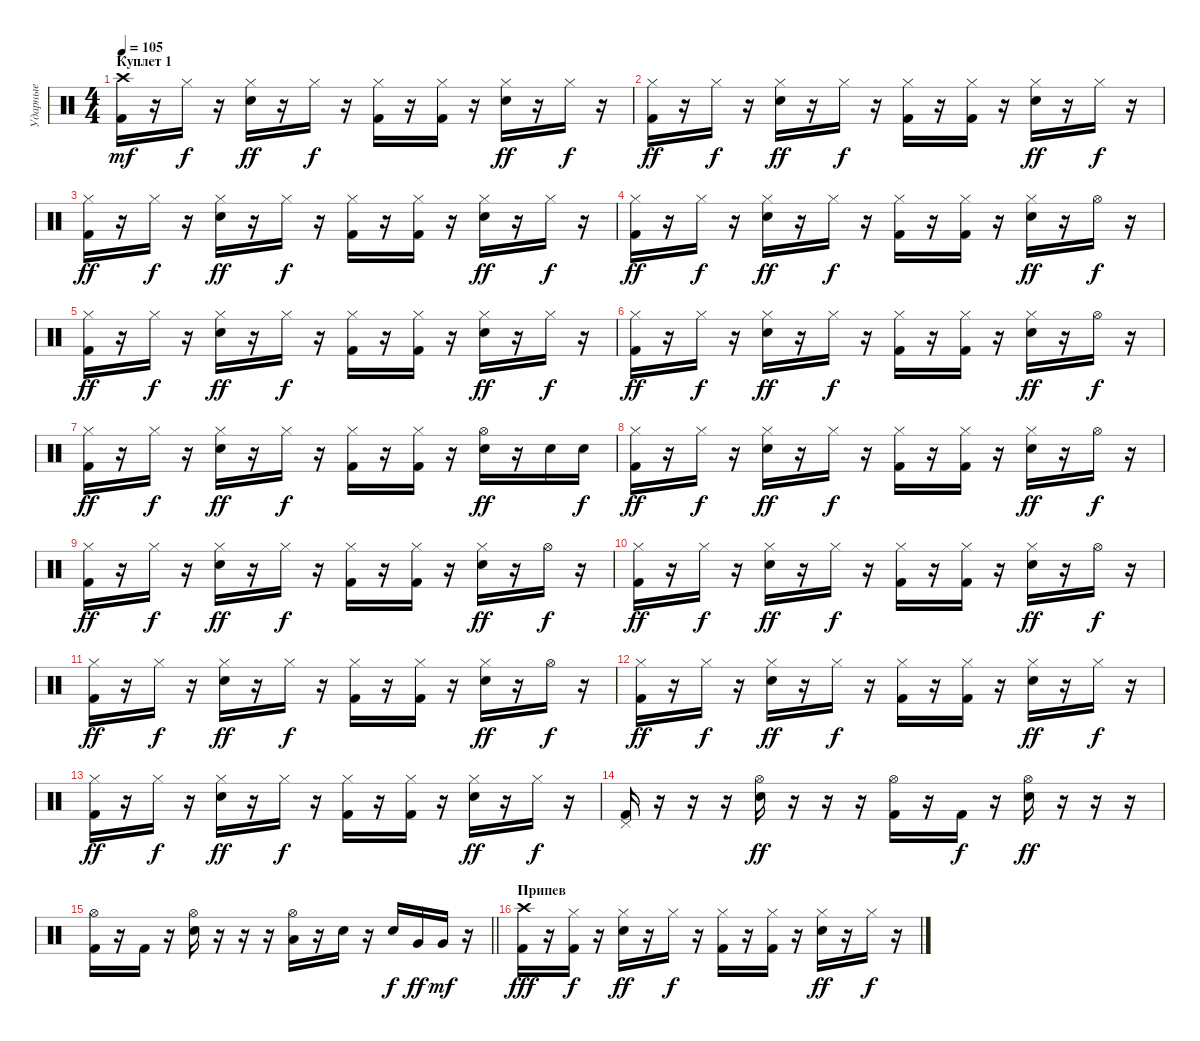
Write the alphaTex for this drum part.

\track ("Ударные" "Ударные") {instrument percussion}
\staff {score}
\articulation defaults
\ts (4 4)
\section ("" "Куплет 1")
\tempo 105
\clef neutral
\ks c
("Crash high (hit)" "Kick (hit) 2").16{dy mf} r.16 "Hi-Hat (closed)".16{dy f} r.16 ("Hi-Hat (closed)" "Electric Snare (hit)").16{dy ff} r.16 "Hi-Hat (closed)".16{dy f} r.16 ("Hi-Hat (closed)" "Kick (hit) 2").16 r.16 ("Hi-Hat (closed)" "Kick (hit) 2").16 r.16 ("Hi-Hat (closed)" "Electric Snare (hit)").16{dy ff} r.16 "Hi-Hat (closed)".16{dy f} r.16 |
("Hi-Hat (closed)" "Kick (hit) 2").16{dy ff} r.16 "Hi-Hat (closed)".16{dy f} r.16 ("Hi-Hat (closed)" "Electric Snare (hit)").16{dy ff} r.16 "Hi-Hat (closed)".16{dy f} r.16 ("Hi-Hat (closed)" "Kick (hit) 2").16 r.16 ("Hi-Hat (closed)" "Kick (hit) 2").16 r.16 ("Hi-Hat (closed)" "Electric Snare (hit)").16{dy ff} r.16 "Hi-Hat (closed)".16{dy f} r.16 |
("Hi-Hat (closed)" "Kick (hit) 2").16{dy ff} r.16 "Hi-Hat (closed)".16{dy f} r.16 ("Hi-Hat (closed)" "Electric Snare (hit)").16{dy ff} r.16 "Hi-Hat (closed)".16{dy f} r.16 ("Hi-Hat (closed)" "Kick (hit) 2").16 r.16 ("Hi-Hat (closed)" "Kick (hit) 2").16 r.16 ("Hi-Hat (closed)" "Electric Snare (hit)").16{dy ff} r.16 "Hi-Hat (closed)".16{dy f} r.16 |
("Hi-Hat (closed)" "Kick (hit) 2").16{dy ff} r.16 "Hi-Hat (closed)".16{dy f} r.16 ("Hi-Hat (closed)" "Electric Snare (hit)").16{dy ff} r.16 "Hi-Hat (closed)".16{dy f} r.16 ("Hi-Hat (closed)" "Kick (hit) 2").16 r.16 ("Hi-Hat (closed)" "Kick (hit) 2").16 r.16 ("Hi-Hat (closed)" "Electric Snare (hit)").16{dy ff} r.16 "Hi-Hat (open)".16{dy f} r.16 |
("Hi-Hat (closed)" "Kick (hit) 2").16{dy ff} r.16 "Hi-Hat (closed)".16{dy f} r.16 ("Hi-Hat (closed)" "Electric Snare (hit)").16{dy ff} r.16 "Hi-Hat (closed)".16{dy f} r.16 ("Hi-Hat (closed)" "Kick (hit) 2").16 r.16 ("Hi-Hat (closed)" "Kick (hit) 2").16 r.16 ("Hi-Hat (closed)" "Electric Snare (hit)").16{dy ff} r.16 "Hi-Hat (closed)".16{dy f} r.16 |
("Hi-Hat (closed)" "Kick (hit) 2").16{dy ff} r.16 "Hi-Hat (closed)".16{dy f} r.16 ("Hi-Hat (closed)" "Electric Snare (hit)").16{dy ff} r.16 "Hi-Hat (closed)".16{dy f} r.16 ("Hi-Hat (closed)" "Kick (hit) 2").16 r.16 ("Hi-Hat (closed)" "Kick (hit) 2").16 r.16 ("Hi-Hat (closed)" "Electric Snare (hit)").16{dy ff} r.16 "Hi-Hat (open)".16{dy f} r.16 |
("Hi-Hat (closed)" "Kick (hit) 2").16{dy ff} r.16 "Hi-Hat (closed)".16{dy f} r.16 ("Hi-Hat (closed)" "Electric Snare (hit)").16{dy ff} r.16 "Hi-Hat (closed)".16{dy f} r.16 ("Hi-Hat (closed)" "Kick (hit) 2").16 r.16 ("Hi-Hat (closed)" "Kick (hit) 2").16 r.16 ("Hi-Hat (open)" "Electric Snare (hit)").16{dy ff} r.16 "Electric Snare (hit)".16 "Electric Snare (hit)".16{dy f} |
("Hi-Hat (closed)" "Kick (hit) 2").16{dy ff} r.16 "Hi-Hat (closed)".16{dy f} r.16 ("Hi-Hat (closed)" "Electric Snare (hit)").16{dy ff} r.16 "Hi-Hat (closed)".16{dy f} r.16 ("Hi-Hat (closed)" "Kick (hit) 2").16 r.16 ("Hi-Hat (closed)" "Kick (hit) 2").16 r.16 ("Hi-Hat (closed)" "Electric Snare (hit)").16{dy ff} r.16 "Hi-Hat (open)".16{dy f} r.16 |
("Hi-Hat (closed)" "Kick (hit) 2").16{dy ff} r.16 "Hi-Hat (closed)".16{dy f} r.16 ("Hi-Hat (closed)" "Electric Snare (hit)").16{dy ff} r.16 "Hi-Hat (closed)".16{dy f} r.16 ("Hi-Hat (closed)" "Kick (hit) 2").16 r.16 ("Hi-Hat (closed)" "Kick (hit) 2").16 r.16 ("Hi-Hat (closed)" "Electric Snare (hit)").16{dy ff} r.16 "Hi-Hat (open)".16{dy f} r.16 |
("Hi-Hat (closed)" "Kick (hit) 2").16{dy ff} r.16 "Hi-Hat (closed)".16{dy f} r.16 ("Hi-Hat (closed)" "Electric Snare (hit)").16{dy ff} r.16 "Hi-Hat (closed)".16{dy f} r.16 ("Hi-Hat (closed)" "Kick (hit) 2").16 r.16 ("Hi-Hat (closed)" "Kick (hit) 2").16 r.16 ("Hi-Hat (closed)" "Electric Snare (hit)").16{dy ff} r.16 "Hi-Hat (open)".16{dy f} r.16 |
("Hi-Hat (closed)" "Kick (hit) 2").16{dy ff} r.16 "Hi-Hat (closed)".16{dy f} r.16 ("Hi-Hat (closed)" "Electric Snare (hit)").16{dy ff} r.16 "Hi-Hat (closed)".16{dy f} r.16 ("Hi-Hat (closed)" "Kick (hit) 2").16 r.16 ("Hi-Hat (closed)" "Kick (hit) 2").16 r.16 ("Hi-Hat (closed)" "Electric Snare (hit)").16{dy ff} r.16 "Hi-Hat (open)".16{dy f} r.16 |
("Hi-Hat (closed)" "Kick (hit) 2").16{dy ff} r.16 "Hi-Hat (closed)".16{dy f} r.16 ("Hi-Hat (closed)" "Electric Snare (hit)").16{dy ff} r.16 "Hi-Hat (closed)".16{dy f} r.16 ("Hi-Hat (closed)" "Kick (hit) 2").16 r.16 ("Hi-Hat (closed)" "Kick (hit) 2").16 r.16 ("Hi-Hat (closed)" "Electric Snare (hit)").16{dy ff} r.16 "Hi-Hat (closed)".16{dy f} r.16 |
("Hi-Hat (closed)" "Kick (hit) 2").16{dy ff} r.16 "Hi-Hat (closed)".16{dy f} r.16 ("Hi-Hat (closed)" "Electric Snare (hit)").16{dy ff} r.16 "Hi-Hat (closed)".16{dy f} r.16 ("Hi-Hat (closed)" "Kick (hit) 2").16 r.16 ("Hi-Hat (closed)" "Kick (hit) 2").16 r.16 ("Hi-Hat (closed)" "Electric Snare (hit)").16{dy ff} r.16 "Hi-Hat (closed)".16{dy f} r.16 |
("Pedal Hi-Hat (hit)" "Kick (hit) 2").16 r.16 r.16 r.16 ("Hi-Hat (open)" "Electric Snare (hit)").16{dy ff} r.16 r.16 r.16 ("Hi-Hat (open)" "Kick (hit) 2").16 r.16 "Kick (hit) 2".16{dy f} r.16 ("Hi-Hat (open)" "Electric Snare (hit)").16{dy ff} r.16 r.16 r.16 |
\barLineRight lightlight
("Hi-Hat (open)" "Kick (hit) 2").16 r.16 "Kick (hit) 2".16 r.16 ("Hi-Hat (open)" "Electric Snare (hit)").16 r.16 r.16 r.16 ("Low Tom (hit)" "Hi-Hat (open)").16 r.16 "Electric Snare (hit)".16 r.16 "Electric Snare (hit)".16{dy f} "Very Low Tom (hit)".16{dy ff} "Very Low Tom (hit)".16{dy mf} r.16 |
\section ("" "Припев")
("Crash high (hit)" "Kick (hit) 2").16{dy fff} r.16 ("Hi-Hat (closed)" "Kick (hit) 2").16{dy f} r.16 ("Hi-Hat (closed)" "Electric Snare (hit)").16{dy ff} r.16 "Hi-Hat (closed)".16{dy f} r.16 ("Hi-Hat (closed)" "Kick (hit) 2").16 r.16 ("Hi-Hat (closed)" "Kick (hit) 2").16 r.16 ("Hi-Hat (closed)" "Electric Snare (hit)").16{dy ff} r.16 "Hi-Hat (closed)".16{dy f} r.16
